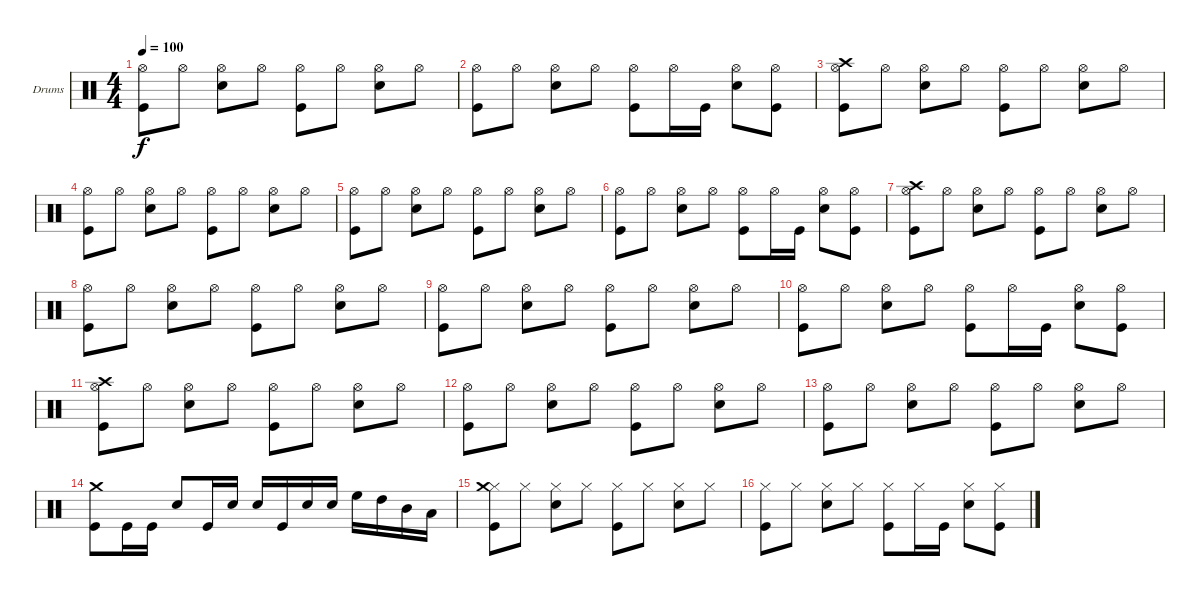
\defaultSystemsLayout 4
\bracketExtendMode groupsimilarinstruments
\firstSystemTrackNameOrientation horizontal
\otherSystemsTrackNameOrientation horizontal
\track ("Nick Menza " "Drums") {instrument percussion}
\staff {score}
\articulation defaults
\ts (4 4)
\tempo 100
\clef neutral
\ks c
("Hi-Hat (open)" "Kick (hit)").8{dy f} "Hi-Hat (open)".8 ("Hi-Hat (open)" "Snare (hit) 2").8 "Hi-Hat (open)".8 ("Hi-Hat (open)" "Kick (hit)").8 "Hi-Hat (open)".8 ("Hi-Hat (open)" "Snare (hit) 2").8 "Hi-Hat (open)".8 |
("Hi-Hat (open)" "Kick (hit)").8 "Hi-Hat (open)".8 ("Hi-Hat (open)" "Snare (hit) 2").8 "Hi-Hat (open)".8 ("Hi-Hat (open)" "Kick (hit)").8 "Hi-Hat (open)".16 "Kick (hit)".16 ("Hi-Hat (open)" "Snare (hit) 2").8 ("Hi-Hat (open)" "Kick (hit)").8 |
("Crash high (hit)" "Hi-Hat (open)" "Kick (hit)").8 "Hi-Hat (open)".8 ("Hi-Hat (open)" "Snare (hit) 2").8 "Hi-Hat (open)".8 ("Hi-Hat (open)" "Kick (hit)").8 "Hi-Hat (open)".8 ("Hi-Hat (open)" "Snare (hit) 2").8 "Hi-Hat (open)".8 |
("Hi-Hat (open)" "Kick (hit)").8 "Hi-Hat (open)".8 ("Hi-Hat (open)" "Snare (hit) 2").8 "Hi-Hat (open)".8 ("Hi-Hat (open)" "Kick (hit)").8 "Hi-Hat (open)".8 ("Hi-Hat (open)" "Snare (hit) 2").8 "Hi-Hat (open)".8 |
("Hi-Hat (open)" "Kick (hit)").8 "Hi-Hat (open)".8 ("Hi-Hat (open)" "Snare (hit) 2").8 "Hi-Hat (open)".8 ("Hi-Hat (open)" "Kick (hit)").8 "Hi-Hat (open)".8 ("Hi-Hat (open)" "Snare (hit) 2").8 "Hi-Hat (open)".8 |
("Hi-Hat (open)" "Kick (hit)").8 "Hi-Hat (open)".8 ("Hi-Hat (open)" "Snare (hit) 2").8 "Hi-Hat (open)".8 ("Hi-Hat (open)" "Kick (hit)").8 "Hi-Hat (open)".16 "Kick (hit)".16 ("Hi-Hat (open)" "Snare (hit) 2").8 ("Hi-Hat (open)" "Kick (hit)").8 |
("Crash high (hit)" "Hi-Hat (open)" "Kick (hit)").8 "Hi-Hat (open)".8 ("Hi-Hat (open)" "Snare (hit) 2").8 "Hi-Hat (open)".8 ("Hi-Hat (open)" "Kick (hit)").8 "Hi-Hat (open)".8 ("Hi-Hat (open)" "Snare (hit) 2").8 "Hi-Hat (open)".8 |
("Hi-Hat (open)" "Kick (hit)").8 "Hi-Hat (open)".8 ("Hi-Hat (open)" "Snare (hit) 2").8 "Hi-Hat (open)".8 ("Hi-Hat (open)" "Kick (hit)").8 "Hi-Hat (open)".8 ("Hi-Hat (open)" "Snare (hit) 2").8 "Hi-Hat (open)".8 |
("Hi-Hat (open)" "Kick (hit)").8 "Hi-Hat (open)".8 ("Hi-Hat (open)" "Snare (hit) 2").8 "Hi-Hat (open)".8 ("Hi-Hat (open)" "Kick (hit)").8 "Hi-Hat (open)".8 ("Hi-Hat (open)" "Snare (hit) 2").8 "Hi-Hat (open)".8 |
("Hi-Hat (open)" "Kick (hit)").8 "Hi-Hat (open)".8 ("Hi-Hat (open)" "Snare (hit) 2").8 "Hi-Hat (open)".8 ("Hi-Hat (open)" "Kick (hit)").8 "Hi-Hat (open)".16 "Kick (hit)".16 ("Hi-Hat (open)" "Snare (hit) 2").8 ("Hi-Hat (open)" "Kick (hit)").8 |
("Hi-Hat (open)" "Kick (hit)" "Crash high (hit)").8 "Hi-Hat (open)".8 ("Hi-Hat (open)" "Snare (hit) 2").8 "Hi-Hat (open)".8 ("Hi-Hat (open)" "Kick (hit)").8 "Hi-Hat (open)".8 ("Hi-Hat (open)" "Snare (hit) 2").8 "Hi-Hat (open)".8 |
("Hi-Hat (open)" "Kick (hit)").8 "Hi-Hat (open)".8 ("Hi-Hat (open)" "Snare (hit) 2").8 "Hi-Hat (open)".8 ("Hi-Hat (open)" "Kick (hit)").8 "Hi-Hat (open)".8 ("Hi-Hat (open)" "Snare (hit) 2").8 "Hi-Hat (open)".8 |
("Hi-Hat (open)" "Kick (hit)").8 "Hi-Hat (open)".8 ("Hi-Hat (open)" "Snare (hit) 2").8 "Hi-Hat (open)".8 ("Hi-Hat (open)" "Kick (hit)").8 "Hi-Hat (open)".8 ("Hi-Hat (open)" "Snare (hit) 2").8 "Hi-Hat (open)".8 |
("Crash medium (hit)" "Kick (hit)").8 "Kick (hit)".16 "Kick (hit)".16 "Snare (hit) 2".8 "Kick (hit)".16 "Snare (hit) 2".16 "Snare (hit) 2".16 "Kick (hit)".16 "Snare (hit) 2".16 "Snare (hit) 2".16 "High Floor Tom (hit)".16 "High Tom (hit)".16 "Mid Tom (hit)".16 "Low Tom (hit)".16 |
("Hi-Hat (closed)" "Kick (hit)" "Crash medium (hit)").8 "Hi-Hat (closed)".8 ("Hi-Hat (closed)" "Snare (hit) 2").8 "Hi-Hat (closed)".8 ("Hi-Hat (closed)" "Kick (hit)").8 "Hi-Hat (closed)".8 ("Hi-Hat (closed)" "Snare (hit) 2").8 "Hi-Hat (closed)".8 |
("Hi-Hat (closed)" "Kick (hit)").8 "Hi-Hat (closed)".8 ("Hi-Hat (closed)" "Snare (hit) 2").8 "Hi-Hat (closed)".8 ("Hi-Hat (closed)" "Kick (hit)").8 "Hi-Hat (closed)".16 "Kick (hit)".16 ("Hi-Hat (closed)" "Snare (hit) 2").8 ("Hi-Hat (closed)" "Kick (hit)").8
